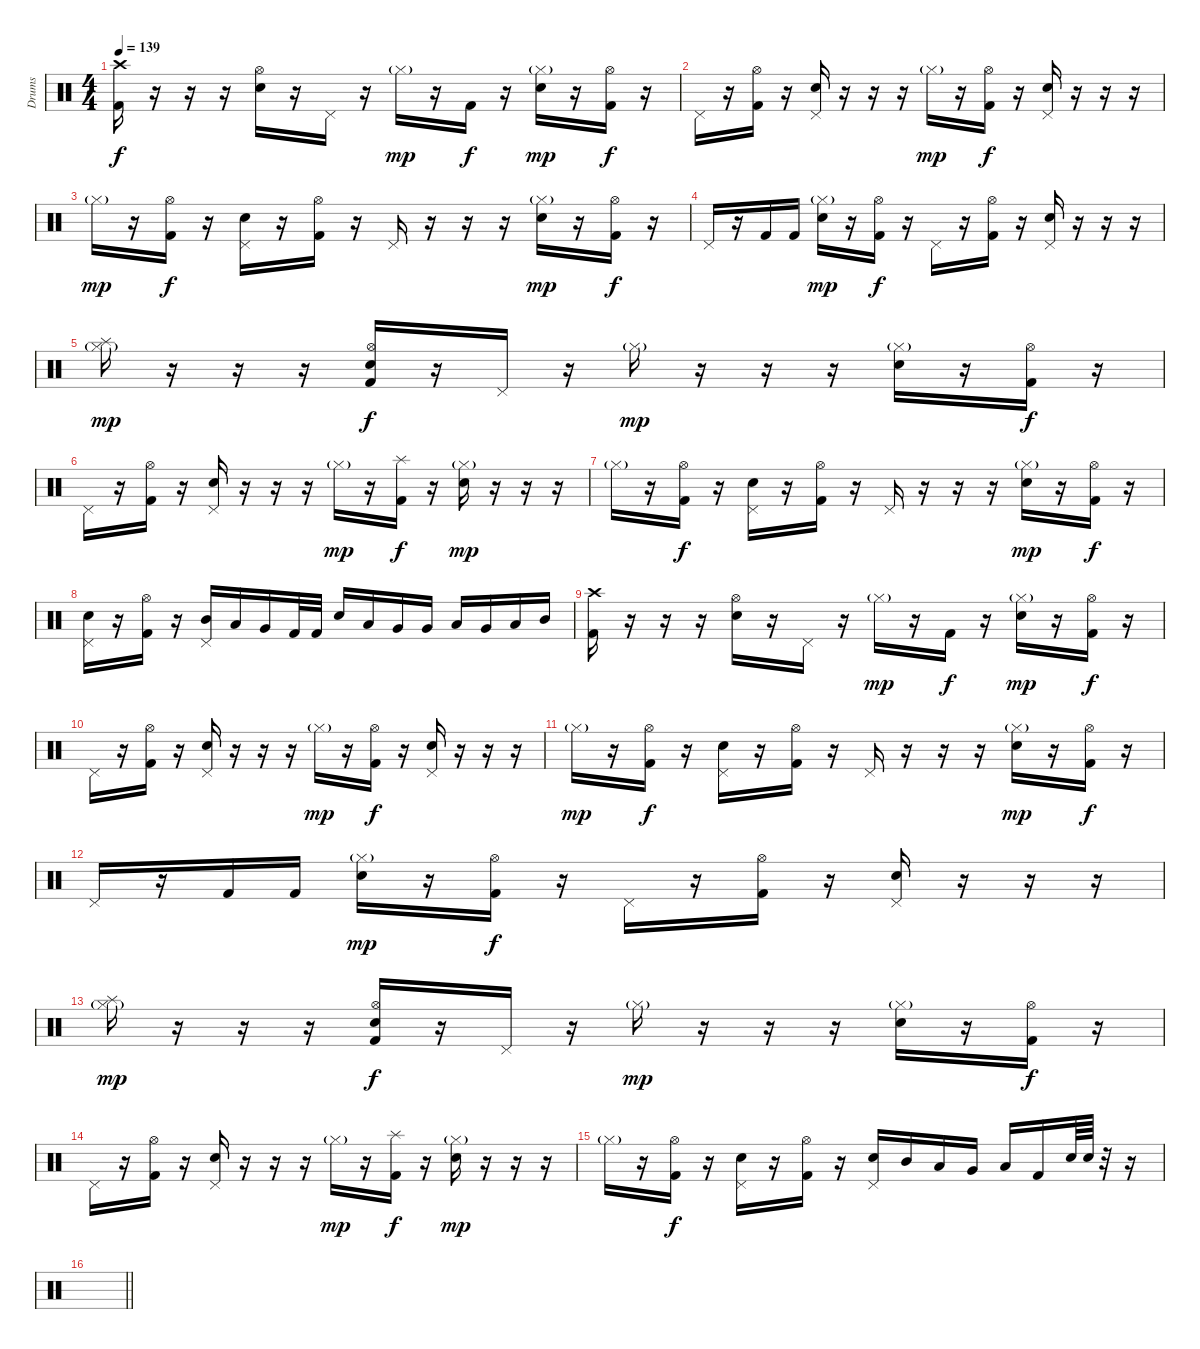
\track ("Drums" "Drums") {instrument percussion}
\staff {score}
\articulation defaults
\ts (4 4)
\section ("" "")
\tempo 139
\clef neutral
\ks c
("Crash high (hit)" "Kick (hit) 2").16{dy f} r.16 r.16 r.16 ("Hi-Hat (open)" "Electric Snare (hit)").16 r.16 "Pedal Hi-Hat (hit)".16 r.16 "Hi-Hat (closed)"{g}.16{dy mp} r.16 "Kick (hit) 2".16{dy f} r.16 ("Hi-Hat (closed)"{g} "Electric Snare (hit)").16{dy mp} r.16 ("Hi-Hat (open)" "Kick (hit) 2").16{dy f} r.16 |
"Pedal Hi-Hat (hit)".16 r.16 ("Hi-Hat (open)" "Kick (hit) 2").16 r.16 ("Pedal Hi-Hat (hit)" "Electric Snare (hit)").16 r.16 r.16 r.16 "Hi-Hat (closed)"{g}.16{dy mp} r.16 ("Hi-Hat (open)" "Kick (hit) 2").16{dy f} r.16 ("Pedal Hi-Hat (hit)" "Electric Snare (hit)").16 r.16 r.16 r.16 |
"Hi-Hat (closed)"{g}.16{dy mp} r.16 ("Hi-Hat (open)" "Kick (hit) 2").16{dy f} r.16 ("Pedal Hi-Hat (hit)" "Electric Snare (hit)").16 r.16 ("Hi-Hat (open)" "Kick (hit) 2").16 r.16 "Pedal Hi-Hat (hit)".16 r.16 r.16 r.16 ("Hi-Hat (closed)"{g} "Electric Snare (hit)").16{dy mp} r.16 ("Hi-Hat (open)" "Kick (hit) 2").16{dy f} r.16 |
"Pedal Hi-Hat (hit)".16 r.16 "Kick (hit) 2".16 "Kick (hit) 2".16 ("Hi-Hat (closed)"{g} "Electric Snare (hit)").16{dy mp} r.16 ("Hi-Hat (open)" "Kick (hit) 2").16{dy f} r.16 "Pedal Hi-Hat (hit)".16 r.16 ("Hi-Hat (open)" "Kick (hit) 2").16 r.16 ("Pedal Hi-Hat (hit)" "Electric Snare (hit)").16 r.16 r.16 r.16 |
("Splash (hit)" "Hi-Hat (closed)"{g}).16{dy mp} r.16 r.16 r.16 ("Hi-Hat (open)" "Electric Snare (hit)" "Kick (hit) 2").16{dy f} r.16 "Pedal Hi-Hat (hit)".16 r.16 "Hi-Hat (closed)"{g}.16{dy mp} r.16 r.16 r.16 ("Hi-Hat (closed)"{g} "Electric Snare (hit)").16 r.16 ("Hi-Hat (open)" "Kick (hit) 2").16{dy f} r.16 |
"Pedal Hi-Hat (hit)".16 r.16 ("Hi-Hat (open)" "Kick (hit) 2").16 r.16 ("Pedal Hi-Hat (hit)" "Electric Snare (hit)").16 r.16 r.16 r.16 "Hi-Hat (closed)"{g}.16{dy mp} r.16 ("Splash (hit)" "Kick (hit) 2").16{dy f} r.16 ("Hi-Hat (closed)"{g} "Electric Snare (hit)").16{dy mp} r.16 r.16 r.16 |
"Hi-Hat (closed)"{g}.16 r.16 ("Hi-Hat (open)" "Kick (hit) 2").16{dy f} r.16 ("Pedal Hi-Hat (hit)" "Electric Snare (hit)").16 r.16 ("Hi-Hat (open)" "Kick (hit) 2").16 r.16 "Pedal Hi-Hat (hit)".16 r.16 r.16 r.16 ("Hi-Hat (closed)"{g} "Electric Snare (hit)").16{dy mp} r.16 ("Hi-Hat (open)" "Kick (hit) 2").16{dy f} r.16 |
("Pedal Hi-Hat (hit)" "Electric Snare (hit)").16 r.16 ("Hi-Hat (open)" "Kick (hit) 2").16 r.16 ("Mid Tom (hit)" "Pedal Hi-Hat (hit)").16 "Low Tom (hit)".16 "Very Low Tom (hit)".16 "Kick (hit) 2".32 "Kick (hit) 2".32 "Electric Snare (hit)".16 "Low Tom (hit)".16 "Very Low Tom (hit)".16 "Very Low Tom (hit)".16 "Low Tom (hit)".16 "Very Low Tom (hit)".16 "Low Floor Tom (hit)".16 "Mid Tom (hit)".16 |
("Crash high (hit)" "Kick (hit) 2").16 r.16 r.16 r.16 ("Hi-Hat (open)" "Electric Snare (hit)").16 r.16 "Pedal Hi-Hat (hit)".16 r.16 "Hi-Hat (closed)"{g}.16{dy mp} r.16 "Kick (hit) 2".16{dy f} r.16 ("Hi-Hat (closed)"{g} "Electric Snare (hit)").16{dy mp} r.16 ("Hi-Hat (open)" "Kick (hit) 2").16{dy f} r.16 |
"Pedal Hi-Hat (hit)".16 r.16 ("Hi-Hat (open)" "Kick (hit) 2").16 r.16 ("Pedal Hi-Hat (hit)" "Electric Snare (hit)").16 r.16 r.16 r.16 "Hi-Hat (closed)"{g}.16{dy mp} r.16 ("Hi-Hat (open)" "Kick (hit) 2").16{dy f} r.16 ("Pedal Hi-Hat (hit)" "Electric Snare (hit)").16 r.16 r.16 r.16 |
"Hi-Hat (closed)"{g}.16{dy mp} r.16 ("Hi-Hat (open)" "Kick (hit) 2").16{dy f} r.16 ("Pedal Hi-Hat (hit)" "Electric Snare (hit)").16 r.16 ("Hi-Hat (open)" "Kick (hit) 2").16 r.16 "Pedal Hi-Hat (hit)".16 r.16 r.16 r.16 ("Hi-Hat (closed)"{g} "Electric Snare (hit)").16{dy mp} r.16 ("Hi-Hat (open)" "Kick (hit) 2").16{dy f} r.16 |
"Pedal Hi-Hat (hit)".16 r.16 "Kick (hit) 2".16 "Kick (hit) 2".16 ("Hi-Hat (closed)"{g} "Electric Snare (hit)").16{dy mp} r.16 ("Hi-Hat (open)" "Kick (hit) 2").16{dy f} r.16 "Pedal Hi-Hat (hit)".16 r.16 ("Hi-Hat (open)" "Kick (hit) 2").16 r.16 ("Pedal Hi-Hat (hit)" "Electric Snare (hit)").16 r.16 r.16 r.16 |
("Splash (hit)" "Hi-Hat (closed)"{g}).16{dy mp} r.16 r.16 r.16 ("Hi-Hat (open)" "Electric Snare (hit)" "Kick (hit) 2").16{dy f} r.16 "Pedal Hi-Hat (hit)".16 r.16 "Hi-Hat (closed)"{g}.16{dy mp} r.16 r.16 r.16 ("Hi-Hat (closed)"{g} "Electric Snare (hit)").16 r.16 ("Hi-Hat (open)" "Kick (hit) 2").16{dy f} r.16 |
"Pedal Hi-Hat (hit)".16 r.16 ("Hi-Hat (open)" "Kick (hit) 2").16 r.16 ("Pedal Hi-Hat (hit)" "Electric Snare (hit)").16 r.16 r.16 r.16 "Hi-Hat (closed)"{g}.16{dy mp} r.16 ("Splash (hit)" "Kick (hit) 2").16{dy f} r.16 ("Hi-Hat (closed)"{g} "Electric Snare (hit)").16{dy mp} r.16 r.16 r.16 |
"Hi-Hat (closed)"{g}.16 r.16 ("Hi-Hat (open)" "Kick (hit) 2").16{dy f} r.16 ("Pedal Hi-Hat (hit)" "Electric Snare (hit)").16 r.16 ("Hi-Hat (open)" "Kick (hit) 2").16 r.16 ("Pedal Hi-Hat (hit)" "Electric Snare (hit)").16 "Mid Tom (hit)".16 "Low Tom (hit)".16 "Very Low Tom (hit)".16 "Low Floor Tom (hit)".16 "Kick (hit) 2".16 "Electric Snare (hit)".64 "Electric Snare (hit)".64 r.32 r.16 |
\barLineRight lightlight
